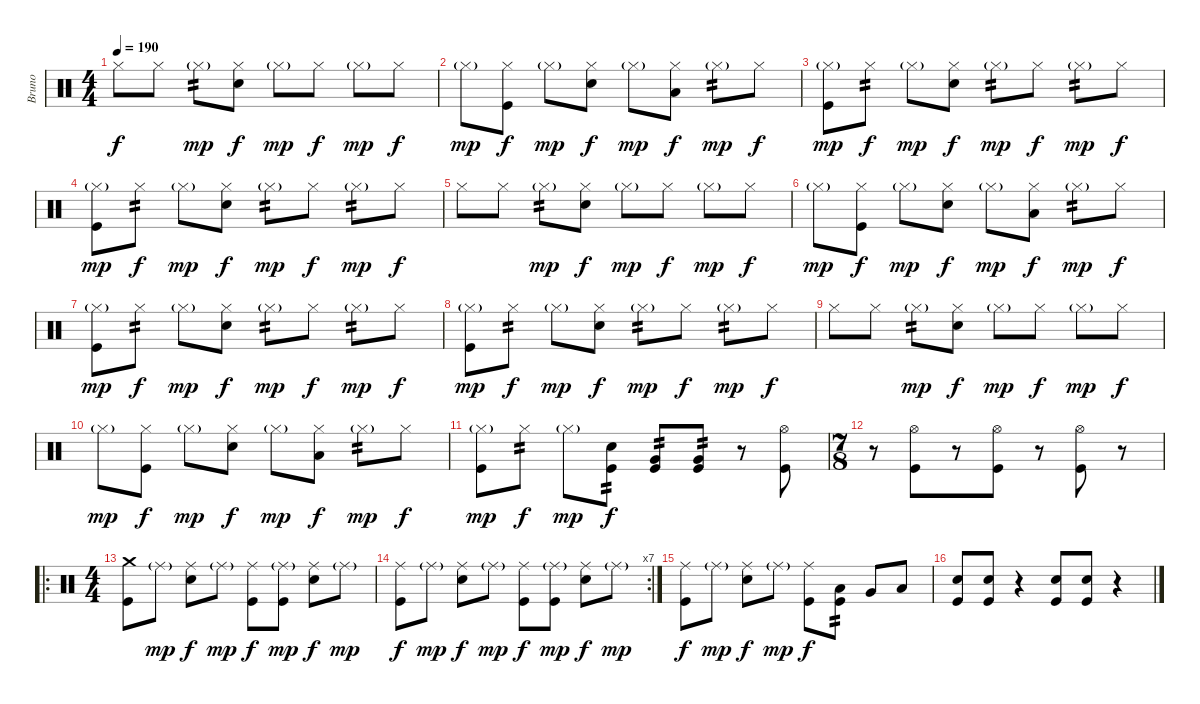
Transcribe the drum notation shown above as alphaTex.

\track ("Bruno" "Bruno") {instrument percussion}
\staff {score}
\articulation defaults
\ts (4 4)
\tempo 190
\clef neutral
\ks c "Hi-Hat (closed)".8{dy f} "Hi-Hat (closed)".8 "Hi-Hat (closed)"{g}.8{tp 2 dy mp}
("Hi-Hat (closed)" "Electric Snare (hit)").8{dy f} "Hi-Hat (closed)"{g}.8{dy mp} "Hi-Hat (closed)".8{dy f} "Hi-Hat (closed)"{g}.8{dy mp} "Hi-Hat (closed)".8{dy f} |
"Hi-Hat (closed)"{g}.8{dy mp} ("Hi-Hat (closed)" "Kick (hit)").8{dy f} "Hi-Hat (closed)"{g}.8{dy mp} ("Hi-Hat (closed)" "Electric Snare (hit)").8{dy f} "Hi-Hat (closed)"{g}.8{dy mp} ("Low Tom (hit)" "Hi-Hat (closed)").8{dy f} "Hi-Hat (closed)"{g}.8{tp 2 dy mp} "Hi-Hat (closed)".8{dy f} |
("Hi-Hat (closed)"{g} "Kick (hit)").8{dy mp} "Hi-Hat (closed)".8{tp 2 dy f} "Hi-Hat (closed)"{g}.8{dy mp} ("Hi-Hat (closed)" "Electric Snare (hit)").8{dy f} "Hi-Hat (closed)"{g}.8{tp 2 dy mp} "Hi-Hat (closed)".8{dy f} "Hi-Hat (closed)"{g}.8{tp 2 dy mp} "Hi-Hat (closed)".8{dy f} |
("Hi-Hat (closed)"{g} "Kick (hit)").8{dy mp} "Hi-Hat (closed)".8{tp 2 dy f} "Hi-Hat (closed)"{g}.8{dy mp} ("Hi-Hat (closed)" "Electric Snare (hit)").8{dy f} "Hi-Hat (closed)"{g}.8{tp 2 dy mp} "Hi-Hat (closed)".8{dy f} "Hi-Hat (closed)"{g}.8{tp 2 dy mp} "Hi-Hat (closed)".8{dy f} |
"Hi-Hat (closed)".8 "Hi-Hat (closed)".8 "Hi-Hat (closed)"{g}.8{tp 2 dy mp} ("Hi-Hat (closed)" "Electric Snare (hit)").8{dy f} "Hi-Hat (closed)"{g}.8{dy mp} "Hi-Hat (closed)".8{dy f} "Hi-Hat (closed)"{g}.8{dy mp} "Hi-Hat (closed)".8{dy f} |
"Hi-Hat (closed)"{g}.8{dy mp} ("Hi-Hat (closed)" "Kick (hit)").8{dy f} "Hi-Hat (closed)"{g}.8{dy mp} ("Hi-Hat (closed)" "Electric Snare (hit)").8{dy f} "Hi-Hat (closed)"{g}.8{dy mp} ("Low Tom (hit)" "Hi-Hat (closed)").8{dy f} "Hi-Hat (closed)"{g}.8{tp 2 dy mp} "Hi-Hat (closed)".8{dy f} |
("Hi-Hat (closed)"{g} "Kick (hit)").8{dy mp} "Hi-Hat (closed)".8{tp 2 dy f} "Hi-Hat (closed)"{g}.8{dy mp} ("Hi-Hat (closed)" "Electric Snare (hit)").8{dy f} "Hi-Hat (closed)"{g}.8{tp 2 dy mp} "Hi-Hat (closed)".8{dy f} "Hi-Hat (closed)"{g}.8{tp 2 dy mp} "Hi-Hat (closed)".8{dy f} |
("Hi-Hat (closed)"{g} "Kick (hit)").8{dy mp} "Hi-Hat (closed)".8{tp 2 dy f} "Hi-Hat (closed)"{g}.8{dy mp} ("Hi-Hat (closed)" "Electric Snare (hit)").8{dy f} "Hi-Hat (closed)"{g}.8{tp 2 dy mp} "Hi-Hat (closed)".8{dy f} "Hi-Hat (closed)"{g}.8{tp 2 dy mp} "Hi-Hat (closed)".8{dy f} |
"Hi-Hat (closed)".8 "Hi-Hat (closed)".8 "Hi-Hat (closed)"{g}.8{tp 2 dy mp} ("Hi-Hat (closed)" "Electric Snare (hit)").8{dy f} "Hi-Hat (closed)"{g}.8{dy mp} "Hi-Hat (closed)".8{dy f} "Hi-Hat (closed)"{g}.8{dy mp} "Hi-Hat (closed)".8{dy f} |
"Hi-Hat (closed)"{g}.8{dy mp} ("Hi-Hat (closed)" "Kick (hit)").8{dy f} "Hi-Hat (closed)"{g}.8{dy mp} ("Hi-Hat (closed)" "Electric Snare (hit)").8{dy f} "Hi-Hat (closed)"{g}.8{dy mp} ("Low Tom (hit)" "Hi-Hat (closed)").8{dy f} "Hi-Hat (closed)"{g}.8{tp 2 dy mp} "Hi-Hat (closed)".8{dy f} |
("Hi-Hat (closed)"{g} "Kick (hit)").8{dy mp} "Hi-Hat (closed)".8{tp 2 dy f} "Hi-Hat (closed)"{g}.8{dy mp} ("Electric Snare (hit)" "Kick (hit)").8{tp 2 dy f} ("Very Low Tom (hit)" "Kick (hit)").8{tp 2} ("Very Low Tom (hit)" "Kick (hit)").8{tp 2} r.8 ("Hi-Hat (open)" "Kick (hit)").8 |
\ts (7 8)
r.8 ("Hi-Hat (open)" "Kick (hit)").8 r.8 ("Hi-Hat (open)" "Kick (hit)").8 r.8 ("Hi-Hat (open)" "Kick (hit)").8 r.8 |
\ro
\ts (4 4)
("Crash medium (hit)" "Kick (hit)").8 "Ride (middle)"{g}.8{dy mp} ("Ride (middle)" "Electric Snare (hit)").8{dy f} "Ride (middle)"{g}.8{dy mp} ("Ride (middle)" "Kick (hit)").8{dy f} ("Ride (middle)"{g} "Kick (hit)").8{dy mp} ("Ride (middle)" "Electric Snare (hit)").8{dy f} "Ride (middle)"{g}.8{dy mp} |
\rc 7
("Ride (middle)" "Kick (hit)").8{dy f} "Ride (middle)"{g}.8{dy mp} ("Ride (middle)" "Electric Snare (hit)").8{dy f} "Ride (middle)"{g}.8{dy mp} ("Ride (middle)" "Kick (hit)").8{dy f} ("Ride (middle)"{g} "Kick (hit)").8{dy mp} ("Ride (middle)" "Electric Snare (hit)").8{dy f} "Ride (middle)"{g}.8{dy mp} |
("Ride (middle)" "Kick (hit)").8{dy f} "Ride (middle)"{g}.8{dy mp} ("Ride (middle)" "Electric Snare (hit)").8{dy f} "Ride (middle)"{g}.8{dy mp} ("Ride (middle)" "Kick (hit)").8{dy f} ("Low Tom (hit)" "Kick (hit)").8{tp 2} "Very Low Tom (hit)".8 "Low Floor Tom (hit)".8 |
("Electric Snare (hit)" "Kick (hit)").8 ("Electric Snare (hit)" "Kick (hit)").8 r.4 ("Electric Snare (hit)" "Kick (hit)").8 ("Electric Snare (hit)" "Kick (hit)").8 r.4
